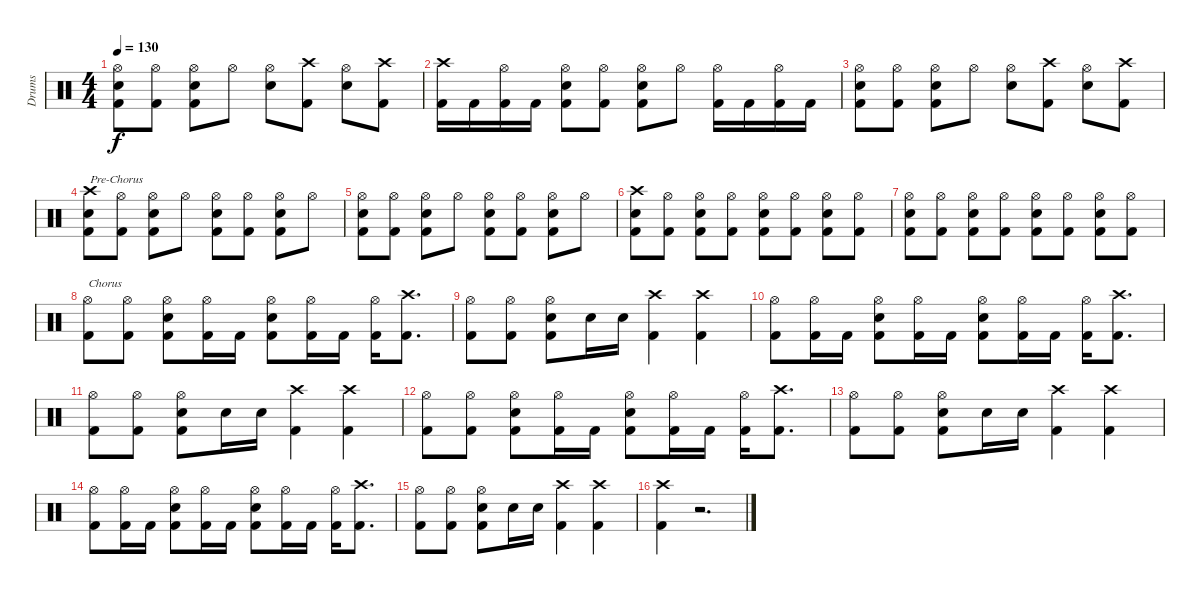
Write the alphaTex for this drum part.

\track ("Drums" "Drums") {instrument percussion}
\staff {score}
\articulation defaults
\ts (4 4)
\tempo 130
\clef neutral
\ks c
("Hi-Hat (open)" "Snare (hit) 2" "Kick (hit) 2").8{dy f} ("Hi-Hat (open)" "Kick (hit) 2").8 ("Hi-Hat (open)" "Snare (hit) 2" "Kick (hit) 2").8 "Hi-Hat (open)".8 ("Hi-Hat (open)" "Snare (hit) 2").8 ("Crash high (hit)" "Kick (hit) 2").8 ("Hi-Hat (open)" "Snare (hit) 2").8 ("Crash high (hit)" "Kick (hit) 2").8 |
("Crash high (hit)" "Kick (hit) 2").16 "Kick (hit) 2".16 ("Hi-Hat (open)" "Kick (hit) 2").16 "Kick (hit) 2".16 ("Hi-Hat (open)" "Snare (hit) 2" "Kick (hit) 2").8 ("Hi-Hat (open)" "Kick (hit) 2").8 ("Hi-Hat (open)" "Snare (hit) 2" "Kick (hit) 2").8 "Hi-Hat (open)".8 ("Hi-Hat (open)" "Kick (hit) 2").16 "Kick (hit) 2".16 ("Hi-Hat (open)" "Kick (hit) 2").16 "Kick (hit) 2".16 |
("Hi-Hat (open)" "Snare (hit) 2" "Kick (hit) 2").8 ("Hi-Hat (open)" "Kick (hit) 2").8 ("Hi-Hat (open)" "Snare (hit) 2" "Kick (hit) 2").8 "Hi-Hat (open)".8 ("Hi-Hat (open)" "Snare (hit) 2").8 ("Crash high (hit)" "Kick (hit) 2").8 ("Hi-Hat (open)" "Snare (hit) 2").8 ("Crash high (hit)" "Kick (hit) 2").8 |
("Crash high (hit)" "Snare (hit) 2" "Kick (hit) 2").8{txt "Pre-Chorus"} ("Hi-Hat (open)" "Kick (hit) 2").8 ("Hi-Hat (open)" "Snare (hit) 2" "Kick (hit) 2").8 "Hi-Hat (open)".8 ("Hi-Hat (open)" "Snare (hit) 2" "Kick (hit) 2").8 ("Hi-Hat (open)" "Kick (hit) 2").8 ("Hi-Hat (open)" "Snare (hit) 2" "Kick (hit) 2").8 "Hi-Hat (open)".8 |
("Hi-Hat (open)" "Snare (hit) 2" "Kick (hit) 2").8 ("Hi-Hat (open)" "Kick (hit) 2").8 ("Hi-Hat (open)" "Snare (hit) 2" "Kick (hit) 2").8 "Hi-Hat (open)".8 ("Hi-Hat (open)" "Snare (hit) 2" "Kick (hit) 2").8 ("Hi-Hat (open)" "Kick (hit) 2").8 ("Hi-Hat (open)" "Snare (hit) 2" "Kick (hit) 2").8 "Hi-Hat (open)".8 |
("Crash high (hit)" "Snare (hit) 2" "Kick (hit) 2").8 ("Hi-Hat (open)" "Kick (hit) 2").8 ("Hi-Hat (open)" "Snare (hit) 2" "Kick (hit) 2").8 ("Hi-Hat (open)" "Kick (hit) 2").8 ("Hi-Hat (open)" "Snare (hit) 2" "Kick (hit) 2").8 ("Hi-Hat (open)" "Kick (hit) 2").8 ("Hi-Hat (open)" "Snare (hit) 2" "Kick (hit) 2").8 ("Hi-Hat (open)" "Kick (hit) 2").8 |
("Hi-Hat (open)" "Snare (hit) 2" "Kick (hit) 2").8 ("Hi-Hat (open)" "Kick (hit) 2").8 ("Hi-Hat (open)" "Snare (hit) 2" "Kick (hit) 2").8 ("Hi-Hat (open)" "Kick (hit) 2").8 ("Hi-Hat (open)" "Snare (hit) 2" "Kick (hit) 2").8 ("Hi-Hat (open)" "Kick (hit) 2").8 ("Hi-Hat (open)" "Snare (hit) 2" "Kick (hit) 2").8 ("Hi-Hat (open)" "Kick (hit) 2").8 |
("Hi-Hat (open)" "Kick (hit) 2").8{txt "Chorus"} ("Hi-Hat (open)" "Kick (hit) 2").8 ("Hi-Hat (open)" "Snare (hit) 2" "Kick (hit) 2").8 ("Hi-Hat (open)" "Kick (hit) 2").16 "Kick (hit) 2".16 ("Hi-Hat (open)" "Snare (hit) 2" "Kick (hit) 2").8 ("Hi-Hat (open)" "Kick (hit) 2").16 "Kick (hit) 2".16 ("Hi-Hat (open)" "Kick (hit) 2").16 ("Crash high (hit)" "Kick (hit) 2").8{d} |
("Hi-Hat (open)" "Kick (hit) 2").8 ("Hi-Hat (open)" "Kick (hit) 2").8 ("Hi-Hat (open)" "Snare (hit) 2" "Kick (hit) 2").8 "Snare (hit) 2".16 "Snare (hit) 2".16 ("Crash high (hit)" "Kick (hit) 2").4 ("Crash high (hit)" "Kick (hit) 2").4 |
("Hi-Hat (open)" "Kick (hit) 2").8 ("Hi-Hat (open)" "Kick (hit) 2").16 "Kick (hit) 2".16 ("Hi-Hat (open)" "Snare (hit) 2" "Kick (hit) 2").8 ("Hi-Hat (open)" "Kick (hit) 2").16 "Kick (hit) 2".16 ("Hi-Hat (open)" "Snare (hit) 2" "Kick (hit) 2").8 ("Hi-Hat (open)" "Kick (hit) 2").16 "Kick (hit) 2".16 ("Hi-Hat (open)" "Kick (hit) 2").16 ("Crash high (hit)" "Kick (hit) 2").8{d} |
("Hi-Hat (open)" "Kick (hit) 2").8 ("Hi-Hat (open)" "Kick (hit) 2").8 ("Hi-Hat (open)" "Snare (hit) 2" "Kick (hit) 2").8 "Snare (hit) 2".16 "Snare (hit) 2".16 ("Crash high (hit)" "Kick (hit) 2").4 ("Crash high (hit)" "Kick (hit) 2").4 |
("Hi-Hat (open)" "Kick (hit) 2").8 ("Hi-Hat (open)" "Kick (hit) 2").8 ("Hi-Hat (open)" "Snare (hit) 2" "Kick (hit) 2").8 ("Hi-Hat (open)" "Kick (hit) 2").16 "Kick (hit) 2".16 ("Hi-Hat (open)" "Snare (hit) 2" "Kick (hit) 2").8 ("Hi-Hat (open)" "Kick (hit) 2").16 "Kick (hit) 2".16 ("Hi-Hat (open)" "Kick (hit) 2").16 ("Crash high (hit)" "Kick (hit) 2").8{d} |
("Hi-Hat (open)" "Kick (hit) 2").8 ("Hi-Hat (open)" "Kick (hit) 2").8 ("Hi-Hat (open)" "Snare (hit) 2" "Kick (hit) 2").8 "Snare (hit) 2".16 "Snare (hit) 2".16 ("Crash high (hit)" "Kick (hit) 2").4 ("Crash high (hit)" "Kick (hit) 2").4 |
("Hi-Hat (open)" "Kick (hit) 2").8 ("Hi-Hat (open)" "Kick (hit) 2").16 "Kick (hit) 2".16 ("Hi-Hat (open)" "Snare (hit) 2" "Kick (hit) 2").8 ("Hi-Hat (open)" "Kick (hit) 2").16 "Kick (hit) 2".16 ("Hi-Hat (open)" "Snare (hit) 2" "Kick (hit) 2").8 ("Hi-Hat (open)" "Kick (hit) 2").16 "Kick (hit) 2".16 ("Hi-Hat (open)" "Kick (hit) 2").16 ("Crash high (hit)" "Kick (hit) 2").8{d} |
("Hi-Hat (open)" "Kick (hit) 2").8 ("Hi-Hat (open)" "Kick (hit) 2").8 ("Hi-Hat (open)" "Snare (hit) 2" "Kick (hit) 2").8 "Snare (hit) 2".16 "Snare (hit) 2".16 ("Crash high (hit)" "Kick (hit) 2").4 ("Crash high (hit)" "Kick (hit) 2").4 |
("Crash high (hit)" "Kick (hit) 2").4 r.2{d}
